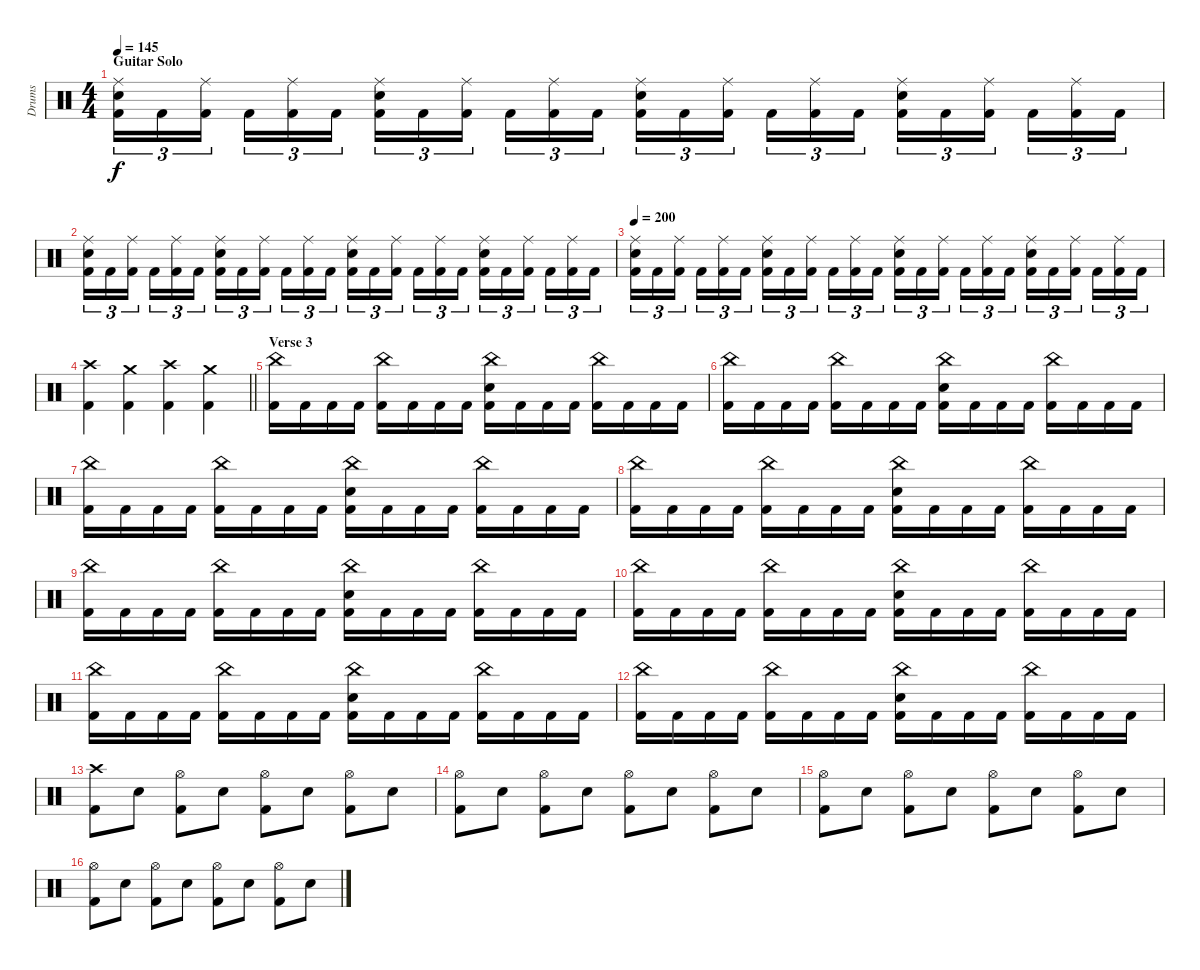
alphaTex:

\track ("Drums" "Drums") {instrument percussion}
\staff {score}
\articulation defaults
\ts (4 4)
\section ("" "Guitar Solo")
\tempo 145
\clef neutral
\ks c
("Ride (middle)" "Electric Snare (hit)" "Kick (hit) 2").16{tu (3 2) dy f} "Kick (hit) 2".16{tu (3 2)} ("Ride (middle)" "Kick (hit) 2").16{tu (3 2) beam splitsecondary} "Kick (hit) 2".16{tu (3 2)} ("Ride (middle)" "Kick (hit) 2").16{tu (3 2)} "Kick (hit) 2".16{tu (3 2)} ("Ride (middle)" "Electric Snare (hit)" "Kick (hit) 2").16{tu (3 2)} "Kick (hit) 2".16{tu (3 2)} ("Ride (middle)" "Kick (hit) 2").16{tu (3 2) beam splitsecondary} "Kick (hit) 2".16{tu (3 2)} ("Ride (middle)" "Kick (hit) 2").16{tu (3 2)} "Kick (hit) 2".16{tu (3 2)} ("Ride (middle)" "Electric Snare (hit)" "Kick (hit) 2").16{tu (3 2)} "Kick (hit) 2".16{tu (3 2)} ("Ride (middle)" "Kick (hit) 2").16{tu (3 2) beam splitsecondary} "Kick (hit) 2".16{tu (3 2)} ("Ride (middle)" "Kick (hit) 2").16{tu (3 2)} "Kick (hit) 2".16{tu (3 2)} ("Ride (middle)" "Electric Snare (hit)" "Kick (hit) 2").16{tu (3 2)} "Kick (hit) 2".16{tu (3 2)} ("Ride (middle)" "Kick (hit) 2").16{tu (3 2) beam splitsecondary} "Kick (hit) 2".16{tu (3 2)} ("Ride (middle)" "Kick (hit) 2").16{tu (3 2)} "Kick (hit) 2".16{tu (3 2)} |
("Ride (middle)" "Electric Snare (hit)" "Kick (hit) 2").16{tu (3 2)} "Kick (hit) 2".16{tu (3 2)} ("Ride (middle)" "Kick (hit) 2").16{tu (3 2) beam splitsecondary} "Kick (hit) 2".16{tu (3 2)} ("Ride (middle)" "Kick (hit) 2").16{tu (3 2)} "Kick (hit) 2".16{tu (3 2)} ("Ride (middle)" "Electric Snare (hit)" "Kick (hit) 2").16{tu (3 2)} "Kick (hit) 2".16{tu (3 2)} ("Ride (middle)" "Kick (hit) 2").16{tu (3 2) beam splitsecondary} "Kick (hit) 2".16{tu (3 2)} ("Ride (middle)" "Kick (hit) 2").16{tu (3 2)} "Kick (hit) 2".16{tu (3 2)} ("Ride (middle)" "Electric Snare (hit)" "Kick (hit) 2").16{tu (3 2)} "Kick (hit) 2".16{tu (3 2)} ("Ride (middle)" "Kick (hit) 2").16{tu (3 2) beam splitsecondary} "Kick (hit) 2".16{tu (3 2)} ("Ride (middle)" "Kick (hit) 2").16{tu (3 2)} "Kick (hit) 2".16{tu (3 2)} ("Ride (middle)" "Electric Snare (hit)" "Kick (hit) 2").16{tu (3 2)} "Kick (hit) 2".16{tu (3 2)} ("Ride (middle)" "Kick (hit) 2").16{tu (3 2) beam splitsecondary} "Kick (hit) 2".16{tu (3 2)} ("Ride (middle)" "Kick (hit) 2").16{tu (3 2)} "Kick (hit) 2".16{tu (3 2)} |
\tempo 200
("Ride (middle)" "Electric Snare (hit)" "Kick (hit) 2").16{tu (3 2)} "Kick (hit) 2".16{tu (3 2)} ("Ride (middle)" "Kick (hit) 2").16{tu (3 2) beam splitsecondary} "Kick (hit) 2".16{tu (3 2)} ("Ride (middle)" "Kick (hit) 2").16{tu (3 2)} "Kick (hit) 2".16{tu (3 2)} ("Ride (middle)" "Electric Snare (hit)" "Kick (hit) 2").16{tu (3 2)} "Kick (hit) 2".16{tu (3 2)} ("Ride (middle)" "Kick (hit) 2").16{tu (3 2) beam splitsecondary} "Kick (hit) 2".16{tu (3 2)} ("Ride (middle)" "Kick (hit) 2").16{tu (3 2)} "Kick (hit) 2".16{tu (3 2)} ("Ride (middle)" "Electric Snare (hit)" "Kick (hit) 2").16{tu (3 2)} "Kick (hit) 2".16{tu (3 2)} ("Ride (middle)" "Kick (hit) 2").16{tu (3 2) beam splitsecondary} "Kick (hit) 2".16{tu (3 2)} ("Ride (middle)" "Kick (hit) 2").16{tu (3 2)} "Kick (hit) 2".16{tu (3 2)} ("Ride (middle)" "Electric Snare (hit)" "Kick (hit) 2").16{tu (3 2)} "Kick (hit) 2".16{tu (3 2)} ("Ride (middle)" "Kick (hit) 2").16{tu (3 2) beam splitsecondary} "Kick (hit) 2".16{tu (3 2)} ("Ride (middle)" "Kick (hit) 2").16{tu (3 2)} "Kick (hit) 2".16{tu (3 2)} |
\barLineRight lightlight
("Crash high (hit)" "Kick (hit) 2").4 ("Crash medium (hit)" "Kick (hit) 2").4 ("Crash high (hit)" "Kick (hit) 2").4 ("Crash medium (hit)" "Kick (hit) 2").4 |
\section ("" "Verse 3")
("China (hit)" "Kick (hit) 2").16 "Kick (hit) 2".16 "Kick (hit) 2".16 "Kick (hit) 2".16 ("China (hit)" "Kick (hit) 2").16 "Kick (hit) 2".16 "Kick (hit) 2".16 "Kick (hit) 2".16 ("China (hit)" "Electric Snare (hit)" "Kick (hit) 2").16 "Kick (hit) 2".16 "Kick (hit) 2".16 "Kick (hit) 2".16 ("China (hit)" "Kick (hit) 2").16 "Kick (hit) 2".16 "Kick (hit) 2".16 "Kick (hit) 2".16 |
("China (hit)" "Kick (hit) 2").16 "Kick (hit) 2".16 "Kick (hit) 2".16 "Kick (hit) 2".16 ("China (hit)" "Kick (hit) 2").16 "Kick (hit) 2".16 "Kick (hit) 2".16 "Kick (hit) 2".16 ("China (hit)" "Electric Snare (hit)" "Kick (hit) 2").16 "Kick (hit) 2".16 "Kick (hit) 2".16 "Kick (hit) 2".16 ("China (hit)" "Kick (hit) 2").16 "Kick (hit) 2".16 "Kick (hit) 2".16 "Kick (hit) 2".16 |
("China (hit)" "Kick (hit) 2").16 "Kick (hit) 2".16 "Kick (hit) 2".16 "Kick (hit) 2".16 ("China (hit)" "Kick (hit) 2").16 "Kick (hit) 2".16 "Kick (hit) 2".16 "Kick (hit) 2".16 ("China (hit)" "Electric Snare (hit)" "Kick (hit) 2").16 "Kick (hit) 2".16 "Kick (hit) 2".16 "Kick (hit) 2".16 ("China (hit)" "Kick (hit) 2").16 "Kick (hit) 2".16 "Kick (hit) 2".16 "Kick (hit) 2".16 |
("China (hit)" "Kick (hit) 2").16 "Kick (hit) 2".16 "Kick (hit) 2".16 "Kick (hit) 2".16 ("China (hit)" "Kick (hit) 2").16 "Kick (hit) 2".16 "Kick (hit) 2".16 "Kick (hit) 2".16 ("China (hit)" "Electric Snare (hit)" "Kick (hit) 2").16 "Kick (hit) 2".16 "Kick (hit) 2".16 "Kick (hit) 2".16 ("China (hit)" "Kick (hit) 2").16 "Kick (hit) 2".16 "Kick (hit) 2".16 "Kick (hit) 2".16 |
("China (hit)" "Kick (hit) 2").16 "Kick (hit) 2".16 "Kick (hit) 2".16 "Kick (hit) 2".16 ("China (hit)" "Kick (hit) 2").16 "Kick (hit) 2".16 "Kick (hit) 2".16 "Kick (hit) 2".16 ("China (hit)" "Electric Snare (hit)" "Kick (hit) 2").16 "Kick (hit) 2".16 "Kick (hit) 2".16 "Kick (hit) 2".16 ("China (hit)" "Kick (hit) 2").16 "Kick (hit) 2".16 "Kick (hit) 2".16 "Kick (hit) 2".16 |
("China (hit)" "Kick (hit) 2").16 "Kick (hit) 2".16 "Kick (hit) 2".16 "Kick (hit) 2".16 ("China (hit)" "Kick (hit) 2").16 "Kick (hit) 2".16 "Kick (hit) 2".16 "Kick (hit) 2".16 ("China (hit)" "Electric Snare (hit)" "Kick (hit) 2").16 "Kick (hit) 2".16 "Kick (hit) 2".16 "Kick (hit) 2".16 ("China (hit)" "Kick (hit) 2").16 "Kick (hit) 2".16 "Kick (hit) 2".16 "Kick (hit) 2".16 |
("China (hit)" "Kick (hit) 2").16 "Kick (hit) 2".16 "Kick (hit) 2".16 "Kick (hit) 2".16 ("China (hit)" "Kick (hit) 2").16 "Kick (hit) 2".16 "Kick (hit) 2".16 "Kick (hit) 2".16 ("China (hit)" "Electric Snare (hit)" "Kick (hit) 2").16 "Kick (hit) 2".16 "Kick (hit) 2".16 "Kick (hit) 2".16 ("China (hit)" "Kick (hit) 2").16 "Kick (hit) 2".16 "Kick (hit) 2".16 "Kick (hit) 2".16 |
("China (hit)" "Kick (hit) 2").16 "Kick (hit) 2".16 "Kick (hit) 2".16 "Kick (hit) 2".16 ("China (hit)" "Kick (hit) 2").16 "Kick (hit) 2".16 "Kick (hit) 2".16 "Kick (hit) 2".16 ("China (hit)" "Electric Snare (hit)" "Kick (hit) 2").16 "Kick (hit) 2".16 "Kick (hit) 2".16 "Kick (hit) 2".16 ("China (hit)" "Kick (hit) 2").16 "Kick (hit) 2".16 "Kick (hit) 2".16 "Kick (hit) 2".16 |
("Crash high (hit)" "Kick (hit) 2").8 "Electric Snare (hit)".8 ("Hi-Hat (open)" "Kick (hit) 2").8 "Electric Snare (hit)".8 ("Hi-Hat (open)" "Kick (hit) 2").8 "Electric Snare (hit)".8 ("Hi-Hat (open)" "Kick (hit) 2").8 "Electric Snare (hit)".8 |
("Hi-Hat (open)" "Kick (hit) 2").8 "Electric Snare (hit)".8 ("Hi-Hat (open)" "Kick (hit) 2").8 "Electric Snare (hit)".8 ("Hi-Hat (open)" "Kick (hit) 2").8 "Electric Snare (hit)".8 ("Hi-Hat (open)" "Kick (hit) 2").8 "Electric Snare (hit)".8 |
("Hi-Hat (open)" "Kick (hit) 2").8 "Electric Snare (hit)".8 ("Hi-Hat (open)" "Kick (hit) 2").8 "Electric Snare (hit)".8 ("Hi-Hat (open)" "Kick (hit) 2").8 "Electric Snare (hit)".8 ("Hi-Hat (open)" "Kick (hit) 2").8 "Electric Snare (hit)".8 |
("Hi-Hat (open)" "Kick (hit) 2").8 "Electric Snare (hit)".8 ("Hi-Hat (open)" "Kick (hit) 2").8 "Electric Snare (hit)".8 ("Hi-Hat (open)" "Kick (hit) 2").8 "Electric Snare (hit)".8 ("Hi-Hat (open)" "Kick (hit) 2").8 "Electric Snare (hit)".8
